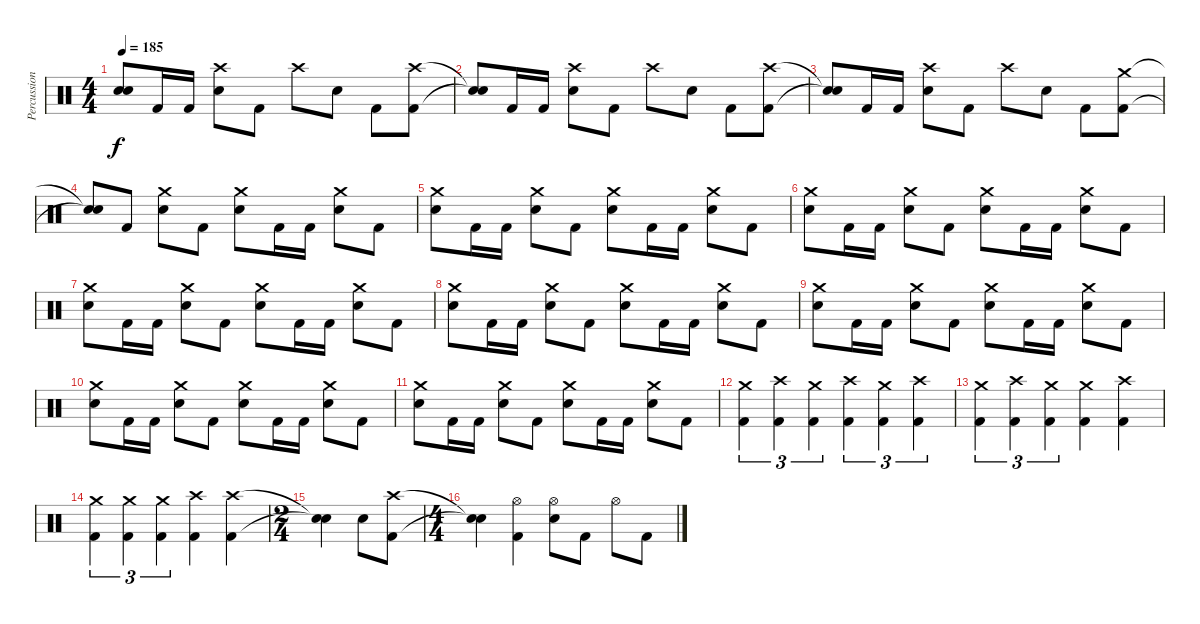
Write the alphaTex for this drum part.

\track ("Percussion" "Percussion") {instrument percussion}
\staff {score}
\articulation defaults
\ts (4 4)
\tempo 185
\clef neutral
\ks c
("Snare (hit)"{t} "Snare (hit)"{t}).8{dy f} "Kick (hit) 2".16 "Kick (hit) 2".16 ("Crash high (hit)" "Electric Snare (hit)").8 "Kick (hit) 2".8 "Crash high (hit)".8 "Electric Snare (hit)".8 "Kick (hit) 2".8 ("Crash high (hit)" "Kick (hit) 2").8 |
("Snare (hit)"{t} "Snare (hit)"{t}).8 "Kick (hit) 2".16 "Kick (hit) 2".16 ("Crash high (hit)" "Electric Snare (hit)").8 "Kick (hit) 2".8 "Crash high (hit)".8 "Electric Snare (hit)".8 "Kick (hit) 2".8 ("Crash high (hit)" "Kick (hit) 2").8 |
("Snare (hit)"{t} "Snare (hit)"{t}).8 "Kick (hit) 2".16 "Kick (hit) 2".16 ("Crash high (hit)" "Electric Snare (hit)").8 "Kick (hit) 2".8 "Crash high (hit)".8 "Electric Snare (hit)".8 "Kick (hit) 2".8 ("Crash medium (hit)" "Kick (hit) 2").8 |
("Snare (hit)"{t} "Snare (hit)"{t}).8 "Kick (hit) 2".8 ("Crash medium (hit)" "Electric Snare (hit)").8 "Kick (hit) 2".8 ("Crash medium (hit)" "Electric Snare (hit)").8 "Kick (hit) 2".16 "Kick (hit) 2".16 ("Crash medium (hit)" "Electric Snare (hit)").8 "Kick (hit) 2".8 |
("Crash medium (hit)" "Electric Snare (hit)").8 "Kick (hit) 2".16 "Kick (hit) 2".16 ("Crash medium (hit)" "Electric Snare (hit)").8 "Kick (hit) 2".8 ("Crash medium (hit)" "Electric Snare (hit)").8 "Kick (hit) 2".16 "Kick (hit) 2".16 ("Crash medium (hit)" "Electric Snare (hit)").8 "Kick (hit) 2".8 |
("Crash medium (hit)" "Electric Snare (hit)").8 "Kick (hit) 2".16 "Kick (hit) 2".16 ("Crash medium (hit)" "Electric Snare (hit)").8 "Kick (hit) 2".8 ("Crash medium (hit)" "Electric Snare (hit)").8 "Kick (hit) 2".16 "Kick (hit) 2".16 ("Crash medium (hit)" "Electric Snare (hit)").8 "Kick (hit) 2".8 |
("Crash medium (hit)" "Electric Snare (hit)").8 "Kick (hit) 2".16 "Kick (hit) 2".16 ("Crash medium (hit)" "Electric Snare (hit)").8 "Kick (hit) 2".8 ("Crash medium (hit)" "Electric Snare (hit)").8 "Kick (hit) 2".16 "Kick (hit) 2".16 ("Crash medium (hit)" "Electric Snare (hit)").8 "Kick (hit) 2".8 |
("Crash medium (hit)" "Electric Snare (hit)").8 "Kick (hit) 2".16 "Kick (hit) 2".16 ("Crash medium (hit)" "Electric Snare (hit)").8 "Kick (hit) 2".8 ("Crash medium (hit)" "Electric Snare (hit)").8 "Kick (hit) 2".16 "Kick (hit) 2".16 ("Crash medium (hit)" "Electric Snare (hit)").8 "Kick (hit) 2".8 |
("Crash medium (hit)" "Electric Snare (hit)").8 "Kick (hit) 2".16 "Kick (hit) 2".16 ("Crash medium (hit)" "Electric Snare (hit)").8 "Kick (hit) 2".8 ("Crash medium (hit)" "Electric Snare (hit)").8 "Kick (hit) 2".16 "Kick (hit) 2".16 ("Crash medium (hit)" "Electric Snare (hit)").8 "Kick (hit) 2".8 |
("Crash medium (hit)" "Electric Snare (hit)").8 "Kick (hit) 2".16 "Kick (hit) 2".16 ("Crash medium (hit)" "Electric Snare (hit)").8 "Kick (hit) 2".8 ("Crash medium (hit)" "Electric Snare (hit)").8 "Kick (hit) 2".16 "Kick (hit) 2".16 ("Crash medium (hit)" "Electric Snare (hit)").8 "Kick (hit) 2".8 |
("Crash medium (hit)" "Electric Snare (hit)").8 "Kick (hit) 2".16 "Kick (hit) 2".16 ("Crash medium (hit)" "Electric Snare (hit)").8 "Kick (hit) 2".8 ("Crash medium (hit)" "Electric Snare (hit)").8 "Kick (hit) 2".16 "Kick (hit) 2".16 ("Crash medium (hit)" "Electric Snare (hit)").8 "Kick (hit) 2".8 |
("Crash medium (hit)" "Kick (hit) 2").4{tu (3 2)} ("Crash high (hit)" "Kick (hit) 2").4{tu (3 2)} ("Crash medium (hit)" "Kick (hit) 2").4{tu (3 2)} ("Crash high (hit)" "Kick (hit) 2").4{tu (3 2)} ("Crash medium (hit)" "Kick (hit) 2").4{tu (3 2)} ("Crash high (hit)" "Kick (hit) 2").4{tu (3 2)} |
("Crash medium (hit)" "Kick (hit) 2").4{tu (3 2)} ("Crash high (hit)" "Kick (hit) 2").4{tu (3 2)} ("Crash medium (hit)" "Kick (hit) 2").4{tu (3 2)} ("Crash medium (hit)" "Kick (hit) 2").4 ("Crash high (hit)" "Kick (hit) 2").4 |
("Crash medium (hit)" "Kick (hit) 2").4{tu (3 2)} ("Crash medium (hit)" "Kick (hit) 2").4{tu (3 2)} ("Crash medium (hit)" "Kick (hit) 2").4{tu (3 2)} ("Crash high (hit)" "Kick (hit) 2").4 ("Crash high (hit)" "Kick (hit) 2").4 |
\ts (2 4)
("Snare (hit)"{t} "Snare (hit)"{t}).4 "Electric Snare (hit)".8 ("Crash high (hit)" "Kick (hit) 2").8 |
\ts (4 4)
("Snare (hit)"{t} "Snare (hit)"{t}).4 ("Hi-Hat (open)" "Kick (hit) 2").4 ("Hi-Hat (open)" "Electric Snare (hit)").8 "Kick (hit) 2".8 "Hi-Hat (open)".8 "Kick (hit) 2".8
